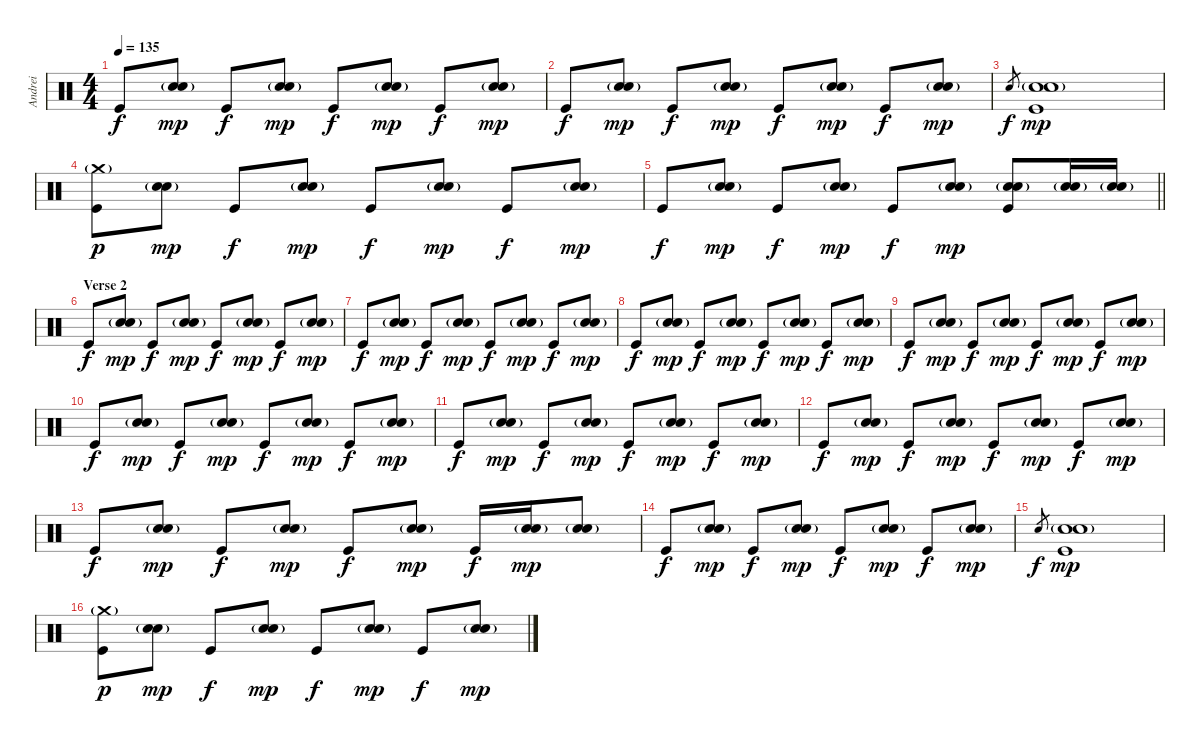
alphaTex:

\track ("Andrei" "Andrei") {instrument percussion}
\staff {score}
\articulation defaults
\ts (4 4)
\tempo 135
\clef neutral
\ks c "Kick (hit)".8{dy f}
("Hand Clap (hit)"{g} "Snare (hit) 2").8{dy mp} "Kick (hit)".8{dy f} ("Hand Clap (hit)"{g} "Snare (hit) 2").8{dy mp} "Kick (hit)".8{dy f} ("Hand Clap (hit)"{g} "Snare (hit) 2").8{dy mp} "Kick (hit)".8{dy f} ("Hand Clap (hit)"{g} "Snare (hit) 2").8{dy mp} |
"Kick (hit)".8{dy f} ("Hand Clap (hit)"{g} "Snare (hit) 2").8{dy mp} "Kick (hit)".8{dy f} ("Hand Clap (hit)"{g} "Snare (hit) 2").8{dy mp} "Kick (hit)".8{dy f} ("Hand Clap (hit)"{g} "Snare (hit) 2").8{dy mp} "Kick (hit)".8{dy f} ("Hand Clap (hit)"{g} "Snare (hit) 2").8{dy mp} |
"Snare (hit) 2".8{gr dy f} ("Hand Clap (hit)"{g} "Snare (hit) 2" "Kick (hit)").1{dy mp} |
("Crash medium (hit)"{g} "Kick (hit)").8{dy p} ("Hand Clap (hit)"{g} "Snare (hit) 2").8{dy mp} "Kick (hit)".8{dy f} ("Hand Clap (hit)"{g} "Snare (hit) 2").8{dy mp} "Kick (hit)".8{dy f} ("Hand Clap (hit)"{g} "Snare (hit) 2").8{dy mp} "Kick (hit)".8{dy f} ("Hand Clap (hit)"{g} "Snare (hit) 2").8{dy mp} |
\barLineRight lightlight "Kick (hit)".8{dy f}
("Hand Clap (hit)"{g} "Snare (hit) 2").8{dy mp} "Kick (hit)".8{dy f} ("Hand Clap (hit)"{g} "Snare (hit) 2").8{dy mp} "Kick (hit)".8{dy f} ("Hand Clap (hit)"{g} "Snare (hit) 2").8{dy mp} ("Hand Clap (hit)"{g} "Snare (hit) 2" "Kick (hit)").8 ("Hand Clap (hit)"{g} "Snare (hit) 2").16 ("Hand Clap (hit)"{g} "Snare (hit) 2").16 |
\section ("" "Verse 2")
"Kick (hit)".8{dy f} ("Hand Clap (hit)"{g} "Snare (hit) 2").8{dy mp} "Kick (hit)".8{dy f} ("Hand Clap (hit)"{g} "Snare (hit) 2").8{dy mp} "Kick (hit)".8{dy f} ("Hand Clap (hit)"{g} "Snare (hit) 2").8{dy mp} "Kick (hit)".8{dy f} ("Hand Clap (hit)"{g} "Snare (hit) 2").8{dy mp} |
"Kick (hit)".8{dy f} ("Hand Clap (hit)"{g} "Snare (hit) 2").8{dy mp} "Kick (hit)".8{dy f} ("Hand Clap (hit)"{g} "Snare (hit) 2").8{dy mp} "Kick (hit)".8{dy f} ("Hand Clap (hit)"{g} "Snare (hit) 2").8{dy mp} "Kick (hit)".8{dy f} ("Hand Clap (hit)"{g} "Snare (hit) 2").8{dy mp} |
"Kick (hit)".8{dy f} ("Hand Clap (hit)"{g} "Snare (hit) 2").8{dy mp} "Kick (hit)".8{dy f} ("Hand Clap (hit)"{g} "Snare (hit) 2").8{dy mp} "Kick (hit)".8{dy f} ("Hand Clap (hit)"{g} "Snare (hit) 2").8{dy mp} "Kick (hit)".8{dy f} ("Hand Clap (hit)"{g} "Snare (hit) 2").8{dy mp} |
"Kick (hit)".8{dy f} ("Hand Clap (hit)"{g} "Snare (hit) 2").8{dy mp} "Kick (hit)".8{dy f} ("Hand Clap (hit)"{g} "Snare (hit) 2").8{dy mp} "Kick (hit)".8{dy f} ("Hand Clap (hit)"{g} "Snare (hit) 2").8{dy mp} "Kick (hit)".8{dy f} ("Hand Clap (hit)"{g} "Snare (hit) 2").8{dy mp} |
"Kick (hit)".8{dy f} ("Hand Clap (hit)"{g} "Snare (hit) 2").8{dy mp} "Kick (hit)".8{dy f} ("Hand Clap (hit)"{g} "Snare (hit) 2").8{dy mp} "Kick (hit)".8{dy f} ("Hand Clap (hit)"{g} "Snare (hit) 2").8{dy mp} "Kick (hit)".8{dy f} ("Hand Clap (hit)"{g} "Snare (hit) 2").8{dy mp} |
"Kick (hit)".8{dy f} ("Hand Clap (hit)"{g} "Snare (hit) 2").8{dy mp} "Kick (hit)".8{dy f} ("Hand Clap (hit)"{g} "Snare (hit) 2").8{dy mp} "Kick (hit)".8{dy f} ("Hand Clap (hit)"{g} "Snare (hit) 2").8{dy mp} "Kick (hit)".8{dy f} ("Hand Clap (hit)"{g} "Snare (hit) 2").8{dy mp} |
"Kick (hit)".8{dy f} ("Hand Clap (hit)"{g} "Snare (hit) 2").8{dy mp} "Kick (hit)".8{dy f} ("Hand Clap (hit)"{g} "Snare (hit) 2").8{dy mp} "Kick (hit)".8{dy f} ("Hand Clap (hit)"{g} "Snare (hit) 2").8{dy mp} "Kick (hit)".8{dy f} ("Hand Clap (hit)"{g} "Snare (hit) 2").8{dy mp} |
"Kick (hit)".8{dy f} ("Hand Clap (hit)"{g} "Snare (hit) 2").8{dy mp} "Kick (hit)".8{dy f} ("Hand Clap (hit)"{g} "Snare (hit) 2").8{dy mp} "Kick (hit)".8{dy f} ("Hand Clap (hit)"{g} "Snare (hit) 2").8{dy mp} "Kick (hit)".16{dy f} ("Hand Clap (hit)"{g} "Snare (hit) 2"{g}).16{dy mp} ("Hand Clap (hit)"{g} "Snare (hit) 2").8 |
"Kick (hit)".8{dy f} ("Hand Clap (hit)"{g} "Snare (hit) 2").8{dy mp} "Kick (hit)".8{dy f} ("Hand Clap (hit)"{g} "Snare (hit) 2").8{dy mp} "Kick (hit)".8{dy f} ("Hand Clap (hit)"{g} "Snare (hit) 2").8{dy mp} "Kick (hit)".8{dy f} ("Hand Clap (hit)"{g} "Snare (hit) 2").8{dy mp} |
"Snare (hit) 2".8{gr dy f} ("Hand Clap (hit)"{g} "Snare (hit) 2" "Kick (hit)").1{dy mp} |
("Crash medium (hit)"{g} "Kick (hit)").8{dy p} ("Hand Clap (hit)"{g} "Snare (hit) 2").8{dy mp} "Kick (hit)".8{dy f} ("Hand Clap (hit)"{g} "Snare (hit) 2").8{dy mp} "Kick (hit)".8{dy f} ("Hand Clap (hit)"{g} "Snare (hit) 2").8{dy mp} "Kick (hit)".8{dy f} ("Hand Clap (hit)"{g} "Snare (hit) 2").8{dy mp}
